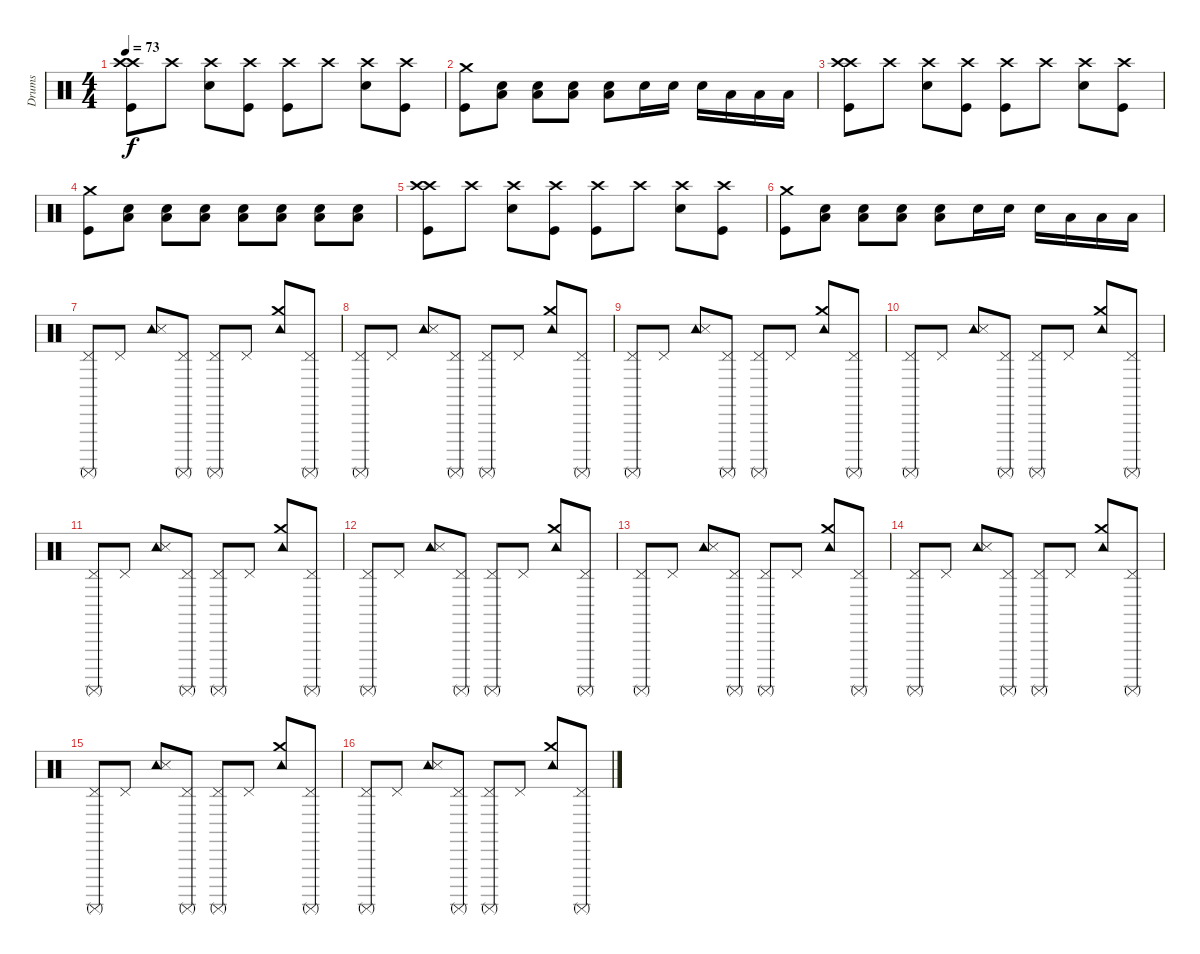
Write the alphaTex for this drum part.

\track ("Drums" "Drums") {instrument percussion}
\staff {score}
\articulation defaults
\ts (4 4)
\tempo 73
\clef neutral
\ks c
("Crash high (hit)" "Crash high (hit)" "Kick (hit)").8{dy f} "Crash high (hit)".8 ("Crash high (hit)" "Electric Snare (hit)").8 ("Crash high (hit)" "Kick (hit)").8 ("Crash high (hit)" "Kick (hit)").8 "Crash high (hit)".8 ("Crash high (hit)" "Electric Snare (hit)").8 ("Crash high (hit)" "Kick (hit)").8 |
("Crash medium (hit)" "Kick (hit)").8 ("Low Floor Tom (hit)" "Electric Snare (hit)").8 ("Low Floor Tom (hit)" "Electric Snare (hit)").8 ("Low Floor Tom (hit)" "Electric Snare (hit)").8 ("Low Floor Tom (hit)" "Electric Snare (hit)").8 "Electric Snare (hit)".16 "Electric Snare (hit)".16 "Electric Snare (hit)".16 "Low Tom (hit)".16 "Low Tom (hit)".16 "Low Tom (hit)".16 |
("Crash high (hit)" "Crash high (hit)" "Kick (hit)").8 "Crash high (hit)".8 ("Crash high (hit)" "Electric Snare (hit)").8 ("Crash high (hit)" "Kick (hit)").8 ("Crash high (hit)" "Kick (hit)").8 "Crash high (hit)".8 ("Crash high (hit)" "Electric Snare (hit)").8 ("Crash high (hit)" "Kick (hit)").8 |
("Crash medium (hit)" "Kick (hit)").8 ("Low Floor Tom (hit)" "Electric Snare (hit)").8 ("Low Floor Tom (hit)" "Electric Snare (hit)").8 ("Low Floor Tom (hit)" "Electric Snare (hit)").8 ("Low Floor Tom (hit)" "Electric Snare (hit)").8 ("Low Floor Tom (hit)" "Electric Snare (hit)").8 ("Low Floor Tom (hit)" "Electric Snare (hit)").8 ("Low Floor Tom (hit)" "Electric Snare (hit)").8 |
("Crash high (hit)" "Crash high (hit)" "Kick (hit)").8 "Crash high (hit)".8 ("Crash high (hit)" "Electric Snare (hit)").8 ("Crash high (hit)" "Kick (hit)").8 ("Crash high (hit)" "Kick (hit)").8 "Crash high (hit)".8 ("Crash high (hit)" "Electric Snare (hit)").8 ("Crash high (hit)" "Kick (hit)").8 |
("Crash medium (hit)" "Kick (hit)").8 ("Low Floor Tom (hit)" "Electric Snare (hit)").8 ("Low Floor Tom (hit)" "Electric Snare (hit)").8 ("Low Floor Tom (hit)" "Electric Snare (hit)").8 ("Low Floor Tom (hit)" "Electric Snare (hit)").8 "Electric Snare (hit)".16 "Electric Snare (hit)".16 "Electric Snare (hit)".16 "Low Tom (hit)".16 "Low Tom (hit)".16 "Low Tom (hit)".16 |
("Pedal Hi-Hat (hit)" "Surdo (mute)").8 "Pedal Hi-Hat (hit)".8 ("Tambourine (hit)" "Snare (side stick) 3").8 ("Pedal Hi-Hat (hit)" "Surdo (mute)").8 ("Pedal Hi-Hat (hit)" "Surdo (mute)").8 "Pedal Hi-Hat (hit)".8 ("Tambourine (hit)" "Crash medium (hit)").8 ("Pedal Hi-Hat (hit)" "Surdo (mute)").8 |
("Pedal Hi-Hat (hit)" "Surdo (mute)").8 "Pedal Hi-Hat (hit)".8 ("Tambourine (hit)" "Snare (side stick) 3").8 ("Pedal Hi-Hat (hit)" "Surdo (mute)").8 ("Pedal Hi-Hat (hit)" "Surdo (mute)").8 "Pedal Hi-Hat (hit)".8 ("Tambourine (hit)" "Crash medium (hit)").8 ("Pedal Hi-Hat (hit)" "Surdo (mute)").8 |
("Pedal Hi-Hat (hit)" "Surdo (mute)").8 "Pedal Hi-Hat (hit)".8 ("Tambourine (hit)" "Snare (side stick) 3").8 ("Pedal Hi-Hat (hit)" "Surdo (mute)").8 ("Pedal Hi-Hat (hit)" "Surdo (mute)").8 "Pedal Hi-Hat (hit)".8 ("Tambourine (hit)" "Crash medium (hit)").8 ("Pedal Hi-Hat (hit)" "Surdo (mute)").8 |
("Pedal Hi-Hat (hit)" "Surdo (mute)").8 "Pedal Hi-Hat (hit)".8 ("Tambourine (hit)" "Snare (side stick) 3").8 ("Pedal Hi-Hat (hit)" "Surdo (mute)").8 ("Pedal Hi-Hat (hit)" "Surdo (mute)").8 "Pedal Hi-Hat (hit)".8 ("Tambourine (hit)" "Crash medium (hit)").8 ("Pedal Hi-Hat (hit)" "Surdo (mute)").8 |
("Pedal Hi-Hat (hit)" "Surdo (mute)").8 "Pedal Hi-Hat (hit)".8 ("Tambourine (hit)" "Snare (side stick) 3").8 ("Pedal Hi-Hat (hit)" "Surdo (mute)").8 ("Pedal Hi-Hat (hit)" "Surdo (mute)").8 "Pedal Hi-Hat (hit)".8 ("Tambourine (hit)" "Crash medium (hit)").8 ("Pedal Hi-Hat (hit)" "Surdo (mute)").8 |
("Pedal Hi-Hat (hit)" "Surdo (mute)").8 "Pedal Hi-Hat (hit)".8 ("Tambourine (hit)" "Snare (side stick) 3").8 ("Pedal Hi-Hat (hit)" "Surdo (mute)").8 ("Pedal Hi-Hat (hit)" "Surdo (mute)").8 "Pedal Hi-Hat (hit)".8 ("Tambourine (hit)" "Crash medium (hit)").8 ("Pedal Hi-Hat (hit)" "Surdo (mute)").8 |
("Pedal Hi-Hat (hit)" "Surdo (mute)").8 "Pedal Hi-Hat (hit)".8 ("Tambourine (hit)" "Snare (side stick) 3").8 ("Pedal Hi-Hat (hit)" "Surdo (mute)").8 ("Pedal Hi-Hat (hit)" "Surdo (mute)").8 "Pedal Hi-Hat (hit)".8 ("Tambourine (hit)" "Crash medium (hit)").8 ("Pedal Hi-Hat (hit)" "Surdo (mute)").8 |
("Pedal Hi-Hat (hit)" "Surdo (mute)").8 "Pedal Hi-Hat (hit)".8 ("Tambourine (hit)" "Snare (side stick) 3").8 ("Pedal Hi-Hat (hit)" "Surdo (mute)").8 ("Pedal Hi-Hat (hit)" "Surdo (mute)").8 "Pedal Hi-Hat (hit)".8 ("Tambourine (hit)" "Crash medium (hit)").8 ("Pedal Hi-Hat (hit)" "Surdo (mute)").8 |
("Pedal Hi-Hat (hit)" "Surdo (mute)").8 "Pedal Hi-Hat (hit)".8 ("Tambourine (hit)" "Snare (side stick) 3").8 ("Pedal Hi-Hat (hit)" "Surdo (mute)").8 ("Pedal Hi-Hat (hit)" "Surdo (mute)").8 "Pedal Hi-Hat (hit)".8 ("Tambourine (hit)" "Crash medium (hit)").8 ("Pedal Hi-Hat (hit)" "Surdo (mute)").8 |
("Pedal Hi-Hat (hit)" "Surdo (mute)").8 "Pedal Hi-Hat (hit)".8 ("Tambourine (hit)" "Snare (side stick) 3").8 ("Pedal Hi-Hat (hit)" "Surdo (mute)").8 ("Pedal Hi-Hat (hit)" "Surdo (mute)").8 "Pedal Hi-Hat (hit)".8 ("Tambourine (hit)" "Crash medium (hit)").8 ("Pedal Hi-Hat (hit)" "Surdo (mute)").8
